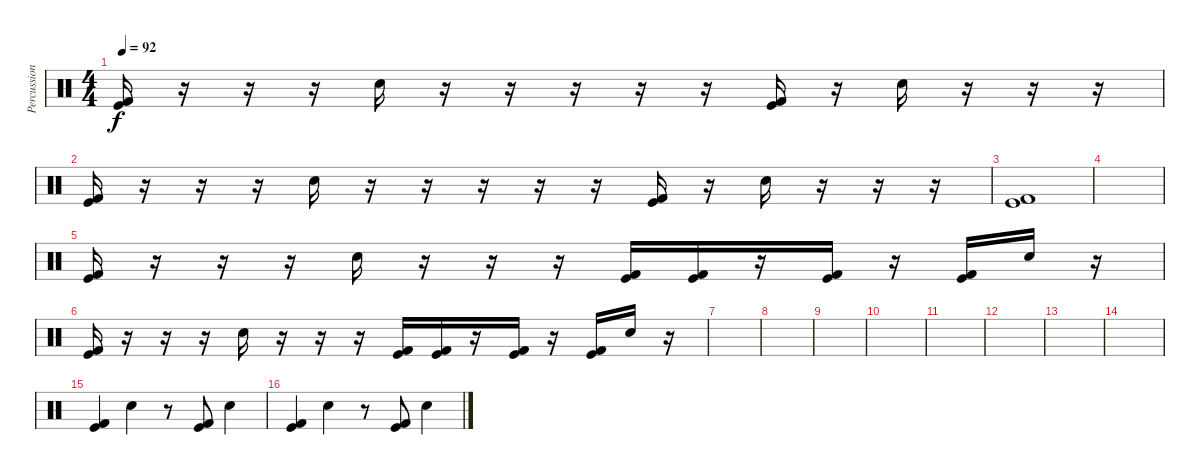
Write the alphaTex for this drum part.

\track ("Percussion" "Percussion") {instrument percussion}
\staff {score}
\articulation defaults
\ts (4 4)
\tempo 92
\clef neutral
\ks c
("Kick (hit)" "Kick (hit) 2").16{dy f} r.16 r.16 r.16 "Snare (hit) 2".16 r.16 r.16 r.16 r.16 r.16 ("Kick (hit)" "Kick (hit) 2").16 r.16 "Snare (hit) 2".16 r.16 r.16 r.16 |
("Kick (hit)" "Kick (hit) 2").16 r.16 r.16 r.16 "Snare (hit) 2".16 r.16 r.16 r.16 r.16 r.16 ("Kick (hit)" "Kick (hit) 2").16 r.16 "Snare (hit) 2".16 r.16 r.16 r.16 |
("Kick (hit)" "Kick (hit) 2").1 |
|
("Kick (hit)" "Kick (hit) 2").16 r.16 r.16 r.16 "Snare (hit) 2".16 r.16 r.16 r.16 ("Kick (hit)" "Kick (hit) 2").16 ("Kick (hit)" "Kick (hit) 2").16 r.16 ("Kick (hit)" "Kick (hit) 2").16 r.16 ("Kick (hit)" "Kick (hit) 2").16 "Snare (hit) 2".16 r.16 |
("Kick (hit)" "Kick (hit) 2").16 r.16 r.16 r.16 "Snare (hit) 2".16 r.16 r.16 r.16 ("Kick (hit)" "Kick (hit) 2").16 ("Kick (hit)" "Kick (hit) 2").16 r.16 ("Kick (hit)" "Kick (hit) 2").16 r.16 ("Kick (hit)" "Kick (hit) 2").16 "Snare (hit) 2".16 r.16 |
|
|
|
|
|
|
|
|
("Kick (hit)" "Kick (hit) 2").4 "Snare (hit) 2".4 r.8 ("Kick (hit)" "Kick (hit) 2").8 "Snare (hit) 2".4 |
("Kick (hit)" "Kick (hit) 2").4 "Snare (hit) 2".4 r.8 ("Kick (hit)" "Kick (hit) 2").8 "Snare (hit) 2".4
